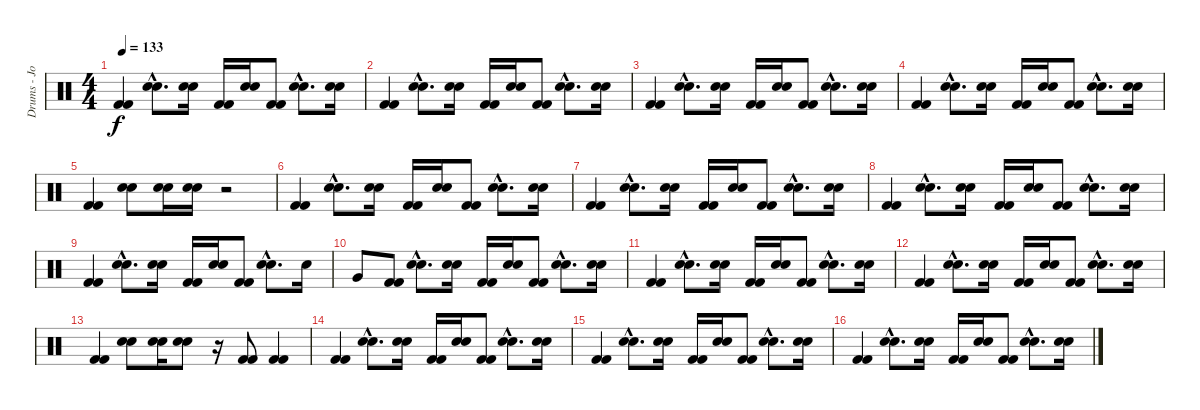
\track ("Drums - Joe Daniels" "Drums - Jo") {instrument percussion}
\staff {score}
\articulation defaults
\ts (4 4)
\tempo 133
\clef neutral
\ks c
("Kick (hit) 2" "Kick (hit) 2").4{dy f} ("Snare (hit) 2"{hac} "Snare (hit) 2"{hac}).8{d} ("Snare (hit) 2" "Snare (hit) 2").16 ("Kick (hit) 2" "Kick (hit) 2").16 ("Snare (hit) 2" "Snare (hit) 2").16 ("Kick (hit) 2" "Kick (hit) 2").8 ("Snare (hit) 2"{hac} "Snare (hit) 2"{hac}).8{d} ("Snare (hit) 2" "Snare (hit) 2").16 |
("Kick (hit) 2" "Kick (hit) 2").4 ("Snare (hit) 2"{hac} "Snare (hit) 2"{hac}).8{d} ("Snare (hit) 2" "Snare (hit) 2").16 ("Kick (hit) 2" "Kick (hit) 2").16 ("Snare (hit) 2" "Snare (hit) 2").16 ("Kick (hit) 2" "Kick (hit) 2").8 ("Snare (hit) 2"{hac} "Snare (hit) 2"{hac}).8{d} ("Snare (hit) 2" "Snare (hit) 2").16 |
("Kick (hit) 2" "Kick (hit) 2").4 ("Snare (hit) 2"{hac} "Snare (hit) 2"{hac}).8{d} ("Snare (hit) 2" "Snare (hit) 2").16 ("Kick (hit) 2" "Kick (hit) 2").16 ("Snare (hit) 2" "Snare (hit) 2").16 ("Kick (hit) 2" "Kick (hit) 2").8 ("Snare (hit) 2"{hac} "Snare (hit) 2"{hac}).8{d} ("Snare (hit) 2" "Snare (hit) 2").16 |
("Kick (hit) 2" "Kick (hit) 2").4 ("Snare (hit) 2"{hac} "Snare (hit) 2"{hac}).8{d} ("Snare (hit) 2" "Snare (hit) 2").16 ("Kick (hit) 2" "Kick (hit) 2").16 ("Snare (hit) 2" "Snare (hit) 2").16 ("Kick (hit) 2" "Kick (hit) 2").8 ("Snare (hit) 2"{hac} "Snare (hit) 2"{hac}).8{d} ("Snare (hit) 2" "Snare (hit) 2").16 |
("Kick (hit) 2" "Kick (hit) 2").4 ("Snare (hit) 2" "Snare (hit) 2").8 ("Snare (hit) 2" "Snare (hit) 2").16 ("Snare (hit) 2" "Snare (hit) 2").16 r.2 |
("Kick (hit) 2" "Kick (hit) 2").4 ("Snare (hit) 2"{hac} "Snare (hit) 2"{hac}).8{d} ("Snare (hit) 2" "Snare (hit) 2").16 ("Kick (hit) 2" "Kick (hit) 2").16 ("Snare (hit) 2" "Snare (hit) 2").16 ("Kick (hit) 2" "Kick (hit) 2").8 ("Snare (hit) 2"{hac} "Snare (hit) 2"{hac}).8{d} ("Snare (hit) 2" "Snare (hit) 2").16 |
("Kick (hit) 2" "Kick (hit) 2").4 ("Snare (hit) 2"{hac} "Snare (hit) 2"{hac}).8{d} ("Snare (hit) 2" "Snare (hit) 2").16 ("Kick (hit) 2" "Kick (hit) 2").16 ("Snare (hit) 2" "Snare (hit) 2").16 ("Kick (hit) 2" "Kick (hit) 2").8 ("Snare (hit) 2"{hac} "Snare (hit) 2"{hac}).8{d} ("Snare (hit) 2" "Snare (hit) 2").16 |
("Kick (hit) 2" "Kick (hit) 2").4 ("Snare (hit) 2"{hac} "Snare (hit) 2"{hac}).8{d} ("Snare (hit) 2" "Snare (hit) 2").16 ("Kick (hit) 2" "Kick (hit) 2").16 ("Snare (hit) 2" "Snare (hit) 2").16 ("Kick (hit) 2" "Kick (hit) 2").8 ("Snare (hit) 2"{hac} "Snare (hit) 2"{hac}).8{d} ("Snare (hit) 2" "Snare (hit) 2").16 |
("Kick (hit) 2" "Kick (hit) 2").4 ("Snare (hit) 2"{hac} "Snare (hit) 2"{hac}).8{d} ("Snare (hit) 2" "Snare (hit) 2").16 ("Kick (hit) 2" "Kick (hit) 2").16 ("Snare (hit) 2" "Snare (hit) 2").16 ("Kick (hit) 2" "Kick (hit) 2").8 ("Snare (hit) 2"{hac} "Snare (hit) 2"{hac}).8{d} "Snare (hit) 2".16 |
"Very Low Tom (hit)".8 ("Kick (hit) 2" "Kick (hit) 2").8 ("Snare (hit) 2"{hac} "Snare (hit) 2"{hac}).8{d} ("Snare (hit) 2" "Snare (hit) 2").16 ("Kick (hit) 2" "Kick (hit) 2").16 ("Snare (hit) 2" "Snare (hit) 2").16 ("Kick (hit) 2" "Kick (hit) 2").8 ("Snare (hit) 2"{hac} "Snare (hit) 2"{hac}).8{d} ("Snare (hit) 2" "Snare (hit) 2").16 |
("Kick (hit) 2" "Kick (hit) 2").4 ("Snare (hit) 2"{hac} "Snare (hit) 2"{hac}).8{d} ("Snare (hit) 2" "Snare (hit) 2").16 ("Kick (hit) 2" "Kick (hit) 2").16 ("Snare (hit) 2" "Snare (hit) 2").16 ("Kick (hit) 2" "Kick (hit) 2").8 ("Snare (hit) 2"{hac} "Snare (hit) 2"{hac}).8{d} ("Snare (hit) 2" "Snare (hit) 2").16 |
("Kick (hit) 2" "Kick (hit) 2").4 ("Snare (hit) 2"{hac} "Snare (hit) 2"{hac}).8{d} ("Snare (hit) 2" "Snare (hit) 2").16 ("Kick (hit) 2" "Kick (hit) 2").16 ("Snare (hit) 2" "Snare (hit) 2").16 ("Kick (hit) 2" "Kick (hit) 2").8 ("Snare (hit) 2"{hac} "Snare (hit) 2"{hac}).8{d} ("Snare (hit) 2" "Snare (hit) 2").16 |
("Kick (hit) 2" "Kick (hit) 2").4 ("Snare (hit) 2" "Snare (hit) 2").8 ("Snare (hit) 2" "Snare (hit) 2").16 ("Snare (hit) 2" "Snare (hit) 2").8 r.16 ("Kick (hit) 2" "Kick (hit) 2").8 ("Kick (hit) 2" "Kick (hit) 2").4 |
("Kick (hit) 2" "Kick (hit) 2").4 ("Snare (hit) 2"{hac} "Snare (hit) 2"{hac}).8{d} ("Snare (hit) 2" "Snare (hit) 2").16 ("Kick (hit) 2" "Kick (hit) 2").16 ("Snare (hit) 2" "Snare (hit) 2").16 ("Kick (hit) 2" "Kick (hit) 2").8 ("Snare (hit) 2"{hac} "Snare (hit) 2"{hac}).8{d} ("Snare (hit) 2" "Snare (hit) 2").16 |
("Kick (hit) 2" "Kick (hit) 2").4 ("Snare (hit) 2"{hac} "Snare (hit) 2"{hac}).8{d} ("Snare (hit) 2" "Snare (hit) 2").16 ("Kick (hit) 2" "Kick (hit) 2").16 ("Snare (hit) 2" "Snare (hit) 2").16 ("Kick (hit) 2" "Kick (hit) 2").8 ("Snare (hit) 2"{hac} "Snare (hit) 2"{hac}).8{d} ("Snare (hit) 2" "Snare (hit) 2").16 |
("Kick (hit) 2" "Kick (hit) 2").4 ("Snare (hit) 2"{hac} "Snare (hit) 2"{hac}).8{d} ("Snare (hit) 2" "Snare (hit) 2").16 ("Kick (hit) 2" "Kick (hit) 2").16 ("Snare (hit) 2" "Snare (hit) 2").16 ("Kick (hit) 2" "Kick (hit) 2").8 ("Snare (hit) 2"{hac} "Snare (hit) 2"{hac}).8{d} ("Snare (hit) 2" "Snare (hit) 2").16
